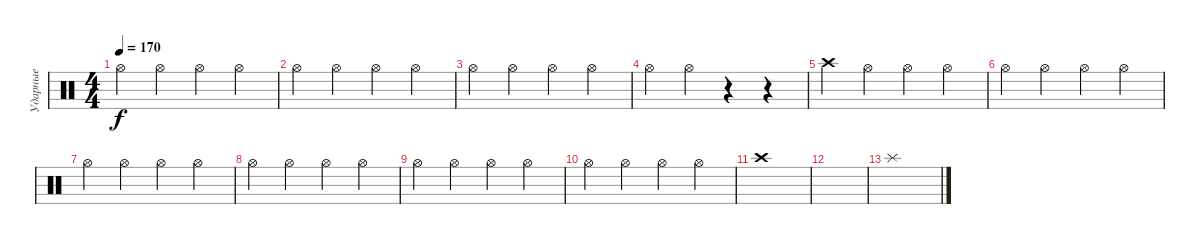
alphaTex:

\track ("Ударные" "Ударные") {instrument percussion}
\staff {score}
\articulation defaults
\ts (4 4)
\tempo 170
\clef neutral
\ks c "Hi-Hat (open)".4{dy f} "Hi-Hat (open)".4 "Hi-Hat (open)".4 "Hi-Hat (open)".4
|
"Hi-Hat (open)".4 "Hi-Hat (open)".4 "Hi-Hat (open)".4 "Hi-Hat (open)".4 |
"Hi-Hat (open)".4 "Hi-Hat (open)".4 "Hi-Hat (open)".4 "Hi-Hat (open)".4 |
"Hi-Hat (open)".4 "Hi-Hat (open)".4 r.4 r.4 |
"Crash high (hit)".4 "Hi-Hat (open)".4 "Hi-Hat (open)".4 "Hi-Hat (open)".4 |
"Hi-Hat (open)".4 "Hi-Hat (open)".4 "Hi-Hat (open)".4 "Hi-Hat (open)".4 |
"Hi-Hat (open)".4 "Hi-Hat (open)".4 "Hi-Hat (open)".4 "Hi-Hat (open)".4 |
"Hi-Hat (open)".4 "Hi-Hat (open)".4 "Hi-Hat (open)".4 "Hi-Hat (open)".4 |
"Hi-Hat (open)".4 "Hi-Hat (open)".4 "Hi-Hat (open)".4 "Hi-Hat (open)".4 |
"Hi-Hat (open)".4 "Hi-Hat (open)".4 "Hi-Hat (open)".4 "Hi-Hat (open)".4 |
"Crash high (hit)".1 |
|
"Splash (hit)".1
